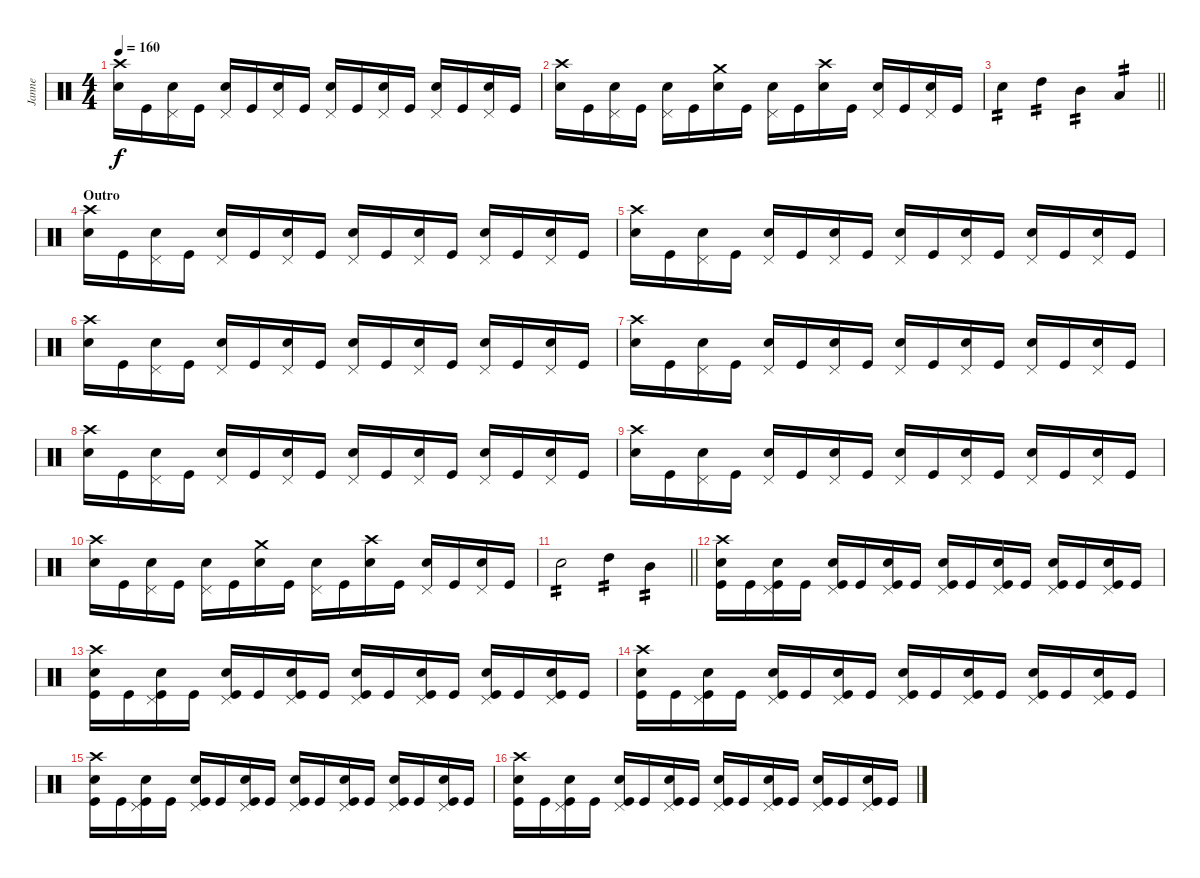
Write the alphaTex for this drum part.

\track ("Janne" "Janne") {instrument percussion}
\staff {score}
\articulation defaults
\ts (4 4)
\tempo 160
\clef neutral
\ks c
("Crash high (hit)" "Snare (hit) 2").16{dy f} "Kick (hit)".16 ("Pedal Hi-Hat (hit)" "Snare (hit) 2").16 "Kick (hit)".16 ("Pedal Hi-Hat (hit)" "Snare (hit) 2").16 "Kick (hit)".16 ("Pedal Hi-Hat (hit)" "Snare (hit) 2").16 "Kick (hit)".16 ("Pedal Hi-Hat (hit)" "Snare (hit) 2").16 "Kick (hit)".16 ("Pedal Hi-Hat (hit)" "Snare (hit) 2").16 "Kick (hit)".16 ("Pedal Hi-Hat (hit)" "Snare (hit) 2").16 "Kick (hit)".16 ("Pedal Hi-Hat (hit)" "Snare (hit) 2").16 "Kick (hit)".16 |
("Crash high (hit)" "Snare (hit) 2").16 "Kick (hit)".16 ("Pedal Hi-Hat (hit)" "Snare (hit) 2").16 "Kick (hit)".16 ("Pedal Hi-Hat (hit)" "Snare (hit) 2").16 "Kick (hit)".16 ("Crash medium (hit)" "Snare (hit) 2").16 "Kick (hit)".16 ("Pedal Hi-Hat (hit)" "Snare (hit) 2").16 "Kick (hit)".16 ("Crash high (hit)" "Snare (hit) 2").16 "Kick (hit)".16 ("Pedal Hi-Hat (hit)" "Snare (hit) 2").16 "Kick (hit)".16 ("Pedal Hi-Hat (hit)" "Snare (hit) 2").16 "Kick (hit)".16 |
\barLineRight lightlight "Snare (hit) 2".4{tp 2} "High Tom (hit)".4{tp 2} "Mid Tom (hit)".4{tp 2} "Low Tom (hit)".4{tp 2}
|
\section ("" "Outro")
("Crash high (hit)" "Snare (hit) 2").16 "Kick (hit)".16 ("Pedal Hi-Hat (hit)" "Snare (hit) 2").16 "Kick (hit)".16 ("Pedal Hi-Hat (hit)" "Snare (hit) 2").16 "Kick (hit)".16 ("Pedal Hi-Hat (hit)" "Snare (hit) 2").16 "Kick (hit)".16 ("Pedal Hi-Hat (hit)" "Snare (hit) 2").16 "Kick (hit)".16 ("Pedal Hi-Hat (hit)" "Snare (hit) 2").16 "Kick (hit)".16 ("Pedal Hi-Hat (hit)" "Snare (hit) 2").16 "Kick (hit)".16 ("Pedal Hi-Hat (hit)" "Snare (hit) 2").16 "Kick (hit)".16 |
("Crash high (hit)" "Snare (hit) 2").16 "Kick (hit)".16 ("Pedal Hi-Hat (hit)" "Snare (hit) 2").16 "Kick (hit)".16 ("Pedal Hi-Hat (hit)" "Snare (hit) 2").16 "Kick (hit)".16 ("Pedal Hi-Hat (hit)" "Snare (hit) 2").16 "Kick (hit)".16 ("Pedal Hi-Hat (hit)" "Snare (hit) 2").16 "Kick (hit)".16 ("Pedal Hi-Hat (hit)" "Snare (hit) 2").16 "Kick (hit)".16 ("Pedal Hi-Hat (hit)" "Snare (hit) 2").16 "Kick (hit)".16 ("Pedal Hi-Hat (hit)" "Snare (hit) 2").16 "Kick (hit)".16 |
("Crash high (hit)" "Snare (hit) 2").16 "Kick (hit)".16 ("Pedal Hi-Hat (hit)" "Snare (hit) 2").16 "Kick (hit)".16 ("Pedal Hi-Hat (hit)" "Snare (hit) 2").16 "Kick (hit)".16 ("Pedal Hi-Hat (hit)" "Snare (hit) 2").16 "Kick (hit)".16 ("Pedal Hi-Hat (hit)" "Snare (hit) 2").16 "Kick (hit)".16 ("Pedal Hi-Hat (hit)" "Snare (hit) 2").16 "Kick (hit)".16 ("Pedal Hi-Hat (hit)" "Snare (hit) 2").16 "Kick (hit)".16 ("Pedal Hi-Hat (hit)" "Snare (hit) 2").16 "Kick (hit)".16 |
("Crash high (hit)" "Snare (hit) 2").16 "Kick (hit)".16 ("Pedal Hi-Hat (hit)" "Snare (hit) 2").16 "Kick (hit)".16 ("Pedal Hi-Hat (hit)" "Snare (hit) 2").16 "Kick (hit)".16 ("Pedal Hi-Hat (hit)" "Snare (hit) 2").16 "Kick (hit)".16 ("Pedal Hi-Hat (hit)" "Snare (hit) 2").16 "Kick (hit)".16 ("Pedal Hi-Hat (hit)" "Snare (hit) 2").16 "Kick (hit)".16 ("Pedal Hi-Hat (hit)" "Snare (hit) 2").16 "Kick (hit)".16 ("Pedal Hi-Hat (hit)" "Snare (hit) 2").16 "Kick (hit)".16 |
("Crash high (hit)" "Snare (hit) 2").16 "Kick (hit)".16 ("Pedal Hi-Hat (hit)" "Snare (hit) 2").16 "Kick (hit)".16 ("Pedal Hi-Hat (hit)" "Snare (hit) 2").16 "Kick (hit)".16 ("Pedal Hi-Hat (hit)" "Snare (hit) 2").16 "Kick (hit)".16 ("Pedal Hi-Hat (hit)" "Snare (hit) 2").16 "Kick (hit)".16 ("Pedal Hi-Hat (hit)" "Snare (hit) 2").16 "Kick (hit)".16 ("Pedal Hi-Hat (hit)" "Snare (hit) 2").16 "Kick (hit)".16 ("Pedal Hi-Hat (hit)" "Snare (hit) 2").16 "Kick (hit)".16 |
("Crash high (hit)" "Snare (hit) 2").16 "Kick (hit)".16 ("Pedal Hi-Hat (hit)" "Snare (hit) 2").16 "Kick (hit)".16 ("Pedal Hi-Hat (hit)" "Snare (hit) 2").16 "Kick (hit)".16 ("Pedal Hi-Hat (hit)" "Snare (hit) 2").16 "Kick (hit)".16 ("Pedal Hi-Hat (hit)" "Snare (hit) 2").16 "Kick (hit)".16 ("Pedal Hi-Hat (hit)" "Snare (hit) 2").16 "Kick (hit)".16 ("Pedal Hi-Hat (hit)" "Snare (hit) 2").16 "Kick (hit)".16 ("Pedal Hi-Hat (hit)" "Snare (hit) 2").16 "Kick (hit)".16 |
("Crash high (hit)" "Snare (hit) 2").16 "Kick (hit)".16 ("Pedal Hi-Hat (hit)" "Snare (hit) 2").16 "Kick (hit)".16 ("Pedal Hi-Hat (hit)" "Snare (hit) 2").16 "Kick (hit)".16 ("Crash medium (hit)" "Snare (hit) 2").16 "Kick (hit)".16 ("Pedal Hi-Hat (hit)" "Snare (hit) 2").16 "Kick (hit)".16 ("Crash high (hit)" "Snare (hit) 2").16 "Kick (hit)".16 ("Pedal Hi-Hat (hit)" "Snare (hit) 2").16 "Kick (hit)".16 ("Pedal Hi-Hat (hit)" "Snare (hit) 2").16 "Kick (hit)".16 |
\barLineRight lightlight "Snare (hit) 2".2{tp 2} "High Tom (hit)".4{tp 2} "Mid Tom (hit)".4{tp 2}
|
("Crash high (hit)" "Snare (hit) 2" "Kick (hit)").16 "Kick (hit)".16 ("Pedal Hi-Hat (hit)" "Snare (hit) 2" "Kick (hit)").16 "Kick (hit)".16 ("Pedal Hi-Hat (hit)" "Snare (hit) 2" "Kick (hit)").16 "Kick (hit)".16 ("Pedal Hi-Hat (hit)" "Snare (hit) 2" "Kick (hit)").16 "Kick (hit)".16 ("Pedal Hi-Hat (hit)" "Snare (hit) 2" "Kick (hit)").16 "Kick (hit)".16 ("Pedal Hi-Hat (hit)" "Snare (hit) 2" "Kick (hit)").16 "Kick (hit)".16 ("Pedal Hi-Hat (hit)" "Snare (hit) 2" "Kick (hit)").16 "Kick (hit)".16 ("Pedal Hi-Hat (hit)" "Snare (hit) 2" "Kick (hit)").16 "Kick (hit)".16 |
("Crash high (hit)" "Snare (hit) 2" "Kick (hit)").16 "Kick (hit)".16 ("Pedal Hi-Hat (hit)" "Snare (hit) 2" "Kick (hit)").16 "Kick (hit)".16 ("Pedal Hi-Hat (hit)" "Snare (hit) 2" "Kick (hit)").16 "Kick (hit)".16 ("Pedal Hi-Hat (hit)" "Snare (hit) 2" "Kick (hit)").16 "Kick (hit)".16 ("Pedal Hi-Hat (hit)" "Snare (hit) 2" "Kick (hit)").16 "Kick (hit)".16 ("Pedal Hi-Hat (hit)" "Snare (hit) 2" "Kick (hit)").16 "Kick (hit)".16 ("Pedal Hi-Hat (hit)" "Snare (hit) 2" "Kick (hit)").16 "Kick (hit)".16 ("Pedal Hi-Hat (hit)" "Snare (hit) 2" "Kick (hit)").16 "Kick (hit)".16 |
("Crash high (hit)" "Snare (hit) 2" "Kick (hit)").16 "Kick (hit)".16 ("Pedal Hi-Hat (hit)" "Snare (hit) 2" "Kick (hit)").16 "Kick (hit)".16 ("Pedal Hi-Hat (hit)" "Snare (hit) 2" "Kick (hit)").16 "Kick (hit)".16 ("Pedal Hi-Hat (hit)" "Snare (hit) 2" "Kick (hit)").16 "Kick (hit)".16 ("Pedal Hi-Hat (hit)" "Snare (hit) 2" "Kick (hit)").16 "Kick (hit)".16 ("Pedal Hi-Hat (hit)" "Snare (hit) 2" "Kick (hit)").16 "Kick (hit)".16 ("Pedal Hi-Hat (hit)" "Snare (hit) 2" "Kick (hit)").16 "Kick (hit)".16 ("Pedal Hi-Hat (hit)" "Snare (hit) 2" "Kick (hit)").16 "Kick (hit)".16 |
("Crash high (hit)" "Snare (hit) 2" "Kick (hit)").16 "Kick (hit)".16 ("Pedal Hi-Hat (hit)" "Snare (hit) 2" "Kick (hit)").16 "Kick (hit)".16 ("Pedal Hi-Hat (hit)" "Snare (hit) 2" "Kick (hit)").16 "Kick (hit)".16 ("Pedal Hi-Hat (hit)" "Snare (hit) 2" "Kick (hit)").16 "Kick (hit)".16 ("Pedal Hi-Hat (hit)" "Snare (hit) 2" "Kick (hit)").16 "Kick (hit)".16 ("Pedal Hi-Hat (hit)" "Snare (hit) 2" "Kick (hit)").16 "Kick (hit)".16 ("Pedal Hi-Hat (hit)" "Snare (hit) 2" "Kick (hit)").16 "Kick (hit)".16 ("Pedal Hi-Hat (hit)" "Snare (hit) 2" "Kick (hit)").16 "Kick (hit)".16 |
("Crash high (hit)" "Snare (hit) 2" "Kick (hit)").16 "Kick (hit)".16 ("Pedal Hi-Hat (hit)" "Snare (hit) 2" "Kick (hit)").16 "Kick (hit)".16 ("Pedal Hi-Hat (hit)" "Snare (hit) 2" "Kick (hit)").16 "Kick (hit)".16 ("Pedal Hi-Hat (hit)" "Snare (hit) 2" "Kick (hit)").16 "Kick (hit)".16 ("Pedal Hi-Hat (hit)" "Snare (hit) 2" "Kick (hit)").16 "Kick (hit)".16 ("Pedal Hi-Hat (hit)" "Snare (hit) 2" "Kick (hit)").16 "Kick (hit)".16 ("Pedal Hi-Hat (hit)" "Snare (hit) 2" "Kick (hit)").16 "Kick (hit)".16 ("Pedal Hi-Hat (hit)" "Snare (hit) 2" "Kick (hit)").16 "Kick (hit)".16
